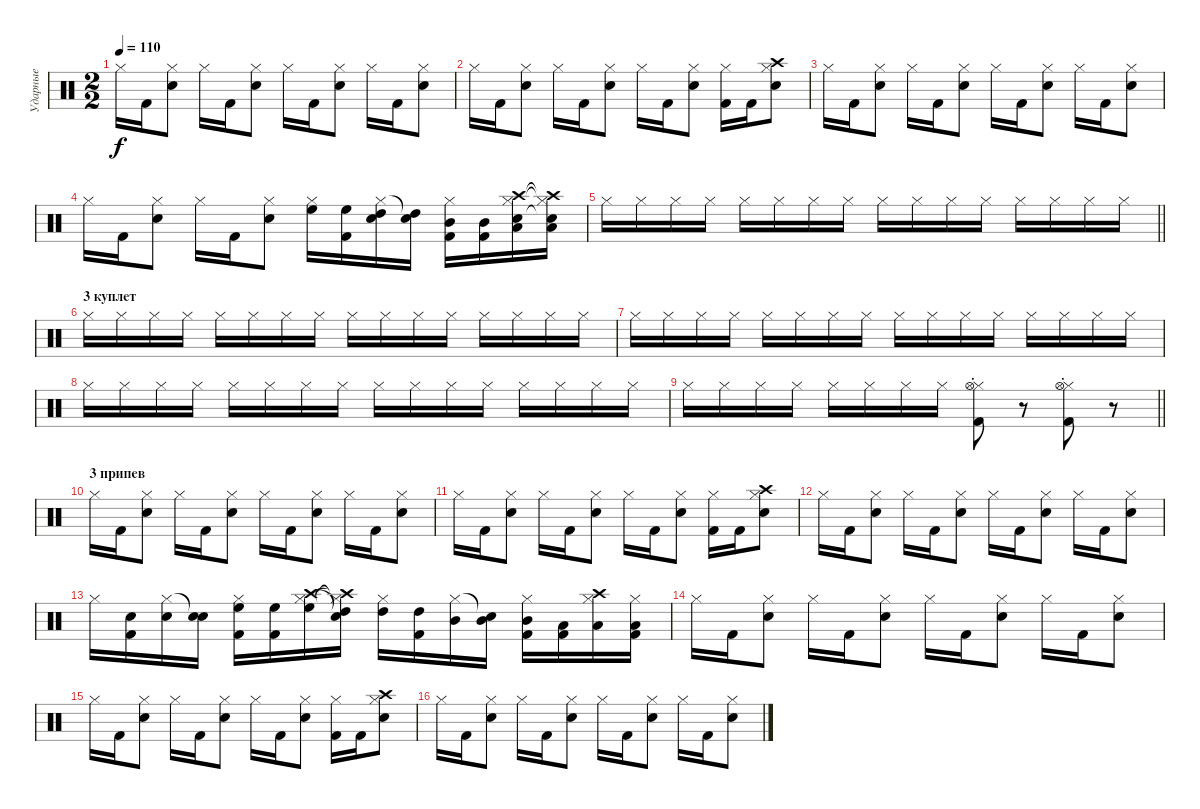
\track ("Ударные" "Ударные") {instrument percussion}
\staff {score}
\articulation defaults
\ts (2 2)
\tempo 110
\clef neutral
\ks c "Hi-Hat (closed)".16{dy f} "Kick (hit) 2".16
("Hi-Hat (closed)" "Snare (hit) 2").8 "Hi-Hat (closed)".16 "Kick (hit) 2".16 ("Hi-Hat (closed)" "Snare (hit) 2").8 "Hi-Hat (closed)".16 "Kick (hit) 2".16 ("Hi-Hat (closed)" "Snare (hit) 2").8 "Hi-Hat (closed)".16 "Kick (hit) 2".16 ("Hi-Hat (closed)" "Snare (hit) 2").8 |
"Hi-Hat (closed)".16 "Kick (hit) 2".16 ("Hi-Hat (closed)" "Snare (hit) 2").8 "Hi-Hat (closed)".16 "Kick (hit) 2".16 ("Hi-Hat (closed)" "Snare (hit) 2").8 "Hi-Hat (closed)".16 "Kick (hit) 2".16 ("Hi-Hat (closed)" "Snare (hit) 2").8 ("Hi-Hat (closed)" "Kick (hit) 2").16 "Kick (hit) 2".16 ("Hi-Hat (closed)" "Snare (hit) 2" "Crash high (hit)").8 |
"Hi-Hat (closed)".16 "Kick (hit) 2".16 ("Hi-Hat (closed)" "Snare (hit) 2").8 "Hi-Hat (closed)".16 "Kick (hit) 2".16 ("Hi-Hat (closed)" "Snare (hit) 2").8 "Hi-Hat (closed)".16 "Kick (hit) 2".16 ("Hi-Hat (closed)" "Snare (hit) 2").8 "Hi-Hat (closed)".16 "Kick (hit) 2".16 ("Hi-Hat (closed)" "Snare (hit) 2").8 |
"Hi-Hat (closed)".16 "Kick (hit) 2".16 ("Hi-Hat (closed)" "Snare (hit) 2").8 "Hi-Hat (closed)".16 "Kick (hit) 2".16 ("Hi-Hat (closed)" "Snare (hit) 2").8 ("Hi-Hat (closed)" "High Floor Tom (hit)").16 ("High Floor Tom (hit)" "Kick (hit) 2").16 ("Hi-Hat (closed)" "Snare (hit) 2" "High Tom (hit)").16 ("Snare (hit) 2"{t} "High Tom (hit)").16 ("Hi-Hat (closed)" "Mid Tom (hit)" "Kick (hit) 2").16 ("Mid Tom (hit)" "Kick (hit) 2").16 ("Hi-Hat (closed)" "Snare (hit) 2" "Crash high (hit)" "Low Tom (hit)").16 ("Hi-Hat (closed)"{t} "Snare (hit) 2"{t} "Crash high (hit)"{t} "Low Tom (hit)").16 |
\barLineRight lightlight "Hi-Hat (closed)".16 "Hi-Hat (closed)".16 "Hi-Hat (closed)".16 "Hi-Hat (closed)".16 "Hi-Hat (closed)".16 "Hi-Hat (closed)".16 "Hi-Hat (closed)".16 "Hi-Hat (closed)".16 "Hi-Hat (closed)".16 "Hi-Hat (closed)".16 "Hi-Hat (closed)".16 "Hi-Hat (closed)".16 "Hi-Hat (closed)".16 "Hi-Hat (closed)".16 "Hi-Hat (closed)".16 "Hi-Hat (closed)".16
|
\section ("" "3 куплет")
"Hi-Hat (closed)".16 "Hi-Hat (closed)".16 "Hi-Hat (closed)".16 "Hi-Hat (closed)".16 "Hi-Hat (closed)".16 "Hi-Hat (closed)".16 "Hi-Hat (closed)".16 "Hi-Hat (closed)".16 "Hi-Hat (closed)".16 "Hi-Hat (closed)".16 "Hi-Hat (closed)".16 "Hi-Hat (closed)".16 "Hi-Hat (closed)".16 "Hi-Hat (closed)".16 "Hi-Hat (closed)".16 "Hi-Hat (closed)".16 |
"Hi-Hat (closed)".16 "Hi-Hat (closed)".16 "Hi-Hat (closed)".16 "Hi-Hat (closed)".16 "Hi-Hat (closed)".16 "Hi-Hat (closed)".16 "Hi-Hat (closed)".16 "Hi-Hat (closed)".16 "Hi-Hat (closed)".16 "Hi-Hat (closed)".16 "Hi-Hat (closed)".16 "Hi-Hat (closed)".16 "Hi-Hat (closed)".16 "Hi-Hat (closed)".16 "Hi-Hat (closed)".16 "Hi-Hat (closed)".16 |
"Hi-Hat (closed)".16 "Hi-Hat (closed)".16 "Hi-Hat (closed)".16 "Hi-Hat (closed)".16 "Hi-Hat (closed)".16 "Hi-Hat (closed)".16 "Hi-Hat (closed)".16 "Hi-Hat (closed)".16 "Hi-Hat (closed)".16 "Hi-Hat (closed)".16 "Hi-Hat (closed)".16 "Hi-Hat (closed)".16 "Hi-Hat (closed)".16 "Hi-Hat (closed)".16 "Hi-Hat (closed)".16 "Hi-Hat (closed)".16 |
\barLineRight lightlight "Hi-Hat (closed)".16 "Hi-Hat (closed)".16 "Hi-Hat (closed)".16 "Hi-Hat (closed)".16 "Hi-Hat (closed)".16 "Hi-Hat (closed)".16 "Hi-Hat (closed)".16 "Hi-Hat (closed)".16
("Hi-Hat (closed)"{st} "Hi-Hat (open)"{st} "Kick (hit) 2"{st}).8 r.8 ("Hi-Hat (closed)" "Hi-Hat (open)" "Kick (hit) 2"{st}).8 r.8 |
\section ("" "3 припев")
"Hi-Hat (closed)".16 "Kick (hit) 2".16 ("Hi-Hat (closed)" "Snare (hit) 2").8 "Hi-Hat (closed)".16 "Kick (hit) 2".16 ("Hi-Hat (closed)" "Snare (hit) 2").8 "Hi-Hat (closed)".16 "Kick (hit) 2".16 ("Hi-Hat (closed)" "Snare (hit) 2").8 "Hi-Hat (closed)".16 "Kick (hit) 2".16 ("Hi-Hat (closed)" "Snare (hit) 2").8 |
"Hi-Hat (closed)".16 "Kick (hit) 2".16 ("Hi-Hat (closed)" "Snare (hit) 2").8 "Hi-Hat (closed)".16 "Kick (hit) 2".16 ("Hi-Hat (closed)" "Snare (hit) 2").8 "Hi-Hat (closed)".16 "Kick (hit) 2".16 ("Hi-Hat (closed)" "Snare (hit) 2").8 ("Hi-Hat (closed)" "Kick (hit) 2").16 "Kick (hit) 2".16 ("Hi-Hat (closed)" "Snare (hit) 2" "Crash high (hit)").8 |
"Hi-Hat (closed)".16 "Kick (hit) 2".16 ("Hi-Hat (closed)" "Snare (hit) 2").8 "Hi-Hat (closed)".16 "Kick (hit) 2".16 ("Hi-Hat (closed)" "Snare (hit) 2").8 "Hi-Hat (closed)".16 "Kick (hit) 2".16 ("Hi-Hat (closed)" "Snare (hit) 2").8 "Hi-Hat (closed)".16 "Kick (hit) 2".16 ("Hi-Hat (closed)" "Snare (hit) 2").8 |
"Hi-Hat (closed)".16 ("Snare (hit) 2" "Kick (hit) 2").16 ("Hi-Hat (closed)" "Snare (hit) 2").16 ("Snare (hit) 2"{t} "Snare (hit) 2").16 ("Hi-Hat (closed)" "High Floor Tom (hit)" "Kick (hit) 2").16 ("High Floor Tom (hit)" "Kick (hit) 2").16 ("Hi-Hat (closed)" "Crash high (hit)" "High Floor Tom (hit)").16 ("Hi-Hat (closed)"{t} "Snare (hit) 2"{t} "Crash high (hit)"{t} "High Tom (hit)").16 ("Hi-Hat (closed)" "High Tom (hit)").16 ("High Tom (hit)" "Kick (hit) 2").16 ("Hi-Hat (closed)" "Mid Tom (hit)").16 ("Snare (hit) 2"{t} "Mid Tom (hit)").16 ("Hi-Hat (closed)" "Mid Tom (hit)" "Kick (hit) 2").16 ("Low Tom (hit)" "Kick (hit) 2").16 ("Hi-Hat (closed)" "Crash high (hit)" "Low Tom (hit)").16 ("Hi-Hat (closed)" "Low Tom (hit)" "Kick (hit) 2").16 |
"Hi-Hat (closed)".16 "Kick (hit) 2".16 ("Hi-Hat (closed)" "Snare (hit) 2").8 "Hi-Hat (closed)".16 "Kick (hit) 2".16 ("Hi-Hat (closed)" "Snare (hit) 2").8 "Hi-Hat (closed)".16 "Kick (hit) 2".16 ("Hi-Hat (closed)" "Snare (hit) 2").8 "Hi-Hat (closed)".16 "Kick (hit) 2".16 ("Hi-Hat (closed)" "Snare (hit) 2").8 |
"Hi-Hat (closed)".16 "Kick (hit) 2".16 ("Hi-Hat (closed)" "Snare (hit) 2").8 "Hi-Hat (closed)".16 "Kick (hit) 2".16 ("Hi-Hat (closed)" "Snare (hit) 2").8 "Hi-Hat (closed)".16 "Kick (hit) 2".16 ("Hi-Hat (closed)" "Snare (hit) 2").8 ("Hi-Hat (closed)" "Kick (hit) 2").16 "Kick (hit) 2".16 ("Hi-Hat (closed)" "Snare (hit) 2" "Crash high (hit)").8 |
"Hi-Hat (closed)".16 "Kick (hit) 2".16 ("Hi-Hat (closed)" "Snare (hit) 2").8 "Hi-Hat (closed)".16 "Kick (hit) 2".16 ("Hi-Hat (closed)" "Snare (hit) 2").8 "Hi-Hat (closed)".16 "Kick (hit) 2".16 ("Hi-Hat (closed)" "Snare (hit) 2").8 "Hi-Hat (closed)".16 "Kick (hit) 2".16 ("Hi-Hat (closed)" "Snare (hit) 2").8
